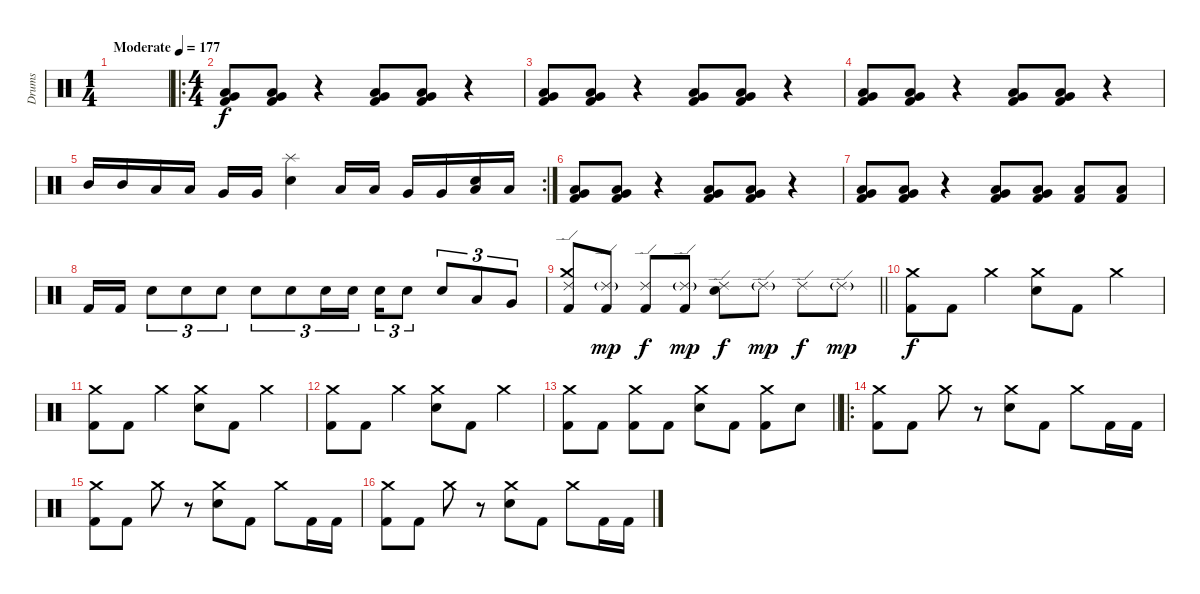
\track ("Drums" "Drums") {instrument percussion}
\staff {score}
\articulation defaults
\ts (1 4)
\tempo (177 "Moderate")
\clef neutral
\ks c
|
\ro
\ts (4 4)
("Very Low Tom (hit)" "Kick (hit) 2" "Low Floor Tom (hit)").8 ("Very Low Tom (hit)" "Kick (hit) 2" "Low Floor Tom (hit)").8 r.4 ("Very Low Tom (hit)" "Kick (hit) 2" "Low Floor Tom (hit)").8 ("Very Low Tom (hit)" "Kick (hit) 2" "Low Floor Tom (hit)").8 r.4 |
("Very Low Tom (hit)" "Kick (hit) 2" "Low Floor Tom (hit)").8 ("Very Low Tom (hit)" "Kick (hit) 2" "Low Floor Tom (hit)").8 r.4 ("Very Low Tom (hit)" "Kick (hit) 2" "Low Floor Tom (hit)").8 ("Very Low Tom (hit)" "Kick (hit) 2" "Low Floor Tom (hit)").8 r.4 |
("Very Low Tom (hit)" "Kick (hit) 2" "Low Floor Tom (hit)").8 ("Very Low Tom (hit)" "Kick (hit) 2" "Low Floor Tom (hit)").8 r.4 ("Very Low Tom (hit)" "Kick (hit) 2" "Low Floor Tom (hit)").8 ("Very Low Tom (hit)" "Kick (hit) 2" "Low Floor Tom (hit)").8 r.4 |
\rc 2 "Mid Tom (hit)".16 "Mid Tom (hit)".16 "Low Tom (hit)".16 "Low Tom (hit)".16 "Very Low Tom (hit)".16 "Very Low Tom (hit)".16
("Splash (hit)" "Snare (hit) 2").4 "Low Tom (hit)".16 "Low Tom (hit)".16 "Very Low Tom (hit)".16 "Very Low Tom (hit)".16 ("Low Floor Tom (hit)" "Snare (hit) 2").16 "Low Floor Tom (hit)".16 |
("Very Low Tom (hit)" "Kick (hit) 2" "Low Floor Tom (hit)").8 ("Very Low Tom (hit)" "Kick (hit) 2" "Low Floor Tom (hit)").8 r.4 ("Very Low Tom (hit)" "Kick (hit) 2" "Low Floor Tom (hit)").8 ("Very Low Tom (hit)" "Kick (hit) 2" "Low Floor Tom (hit)").8 r.4 |
("Very Low Tom (hit)" "Kick (hit) 2" "Low Floor Tom (hit)").8 ("Very Low Tom (hit)" "Kick (hit) 2" "Low Floor Tom (hit)").8 r.4 ("Very Low Tom (hit)" "Kick (hit) 2" "Low Floor Tom (hit)").8 ("Very Low Tom (hit)" "Kick (hit) 2" "Low Floor Tom (hit)").8 ("Low Tom (hit)" "Kick (hit) 2").8 ("Low Tom (hit)" "Kick (hit) 2").8 |
"Kick (hit) 2".16 "Kick (hit) 2".16 "Snare (hit) 2".8{tu (3 2)} "Snare (hit) 2".8{tu (3 2)} "Snare (hit) 2".8{tu (3 2)} "Snare (hit) 2".8{tu (3 2)} "Snare (hit) 2".8{tu (3 2)} "Snare (hit) 2".16{tu (3 2)} "Snare (hit) 2".16{tu (3 2) beam splitsecondary} "Snare (hit) 2".16{tu (3 2)} "Snare (hit) 2".8{tu (3 2)} "Snare (hit) 2".8{tu (3 2)} "Low Tom (hit)".8{tu (3 2)} "Very Low Tom (hit)".8{tu (3 2)} |
\barLineRight lightlight
("Crash medium (hit)" "Ride (edge) 2" "Kick (hit) 2").8 ("Ride (edge) 2"{g} "Kick (hit) 2").8{dy mp} ("Ride (edge) 2" "Kick (hit) 2").8{dy f} ("Ride (edge) 2"{g} "Kick (hit) 2").8{dy mp} ("Ride (edge) 2" "Snare (hit) 2").8{dy f} "Ride (edge) 2"{g}.8{dy mp} "Ride (edge) 2".8{dy f} "Ride (edge) 2"{g}.8{dy mp} |
("Crash medium (hit)" "Kick (hit) 2").8{dy f} "Kick (hit) 2".8 "Crash medium (hit)".4 ("Crash medium (hit)" "Snare (hit) 2").8 "Kick (hit) 2".8 "Crash medium (hit)".4 |
("Crash medium (hit)" "Kick (hit) 2").8 "Kick (hit) 2".8 "Crash medium (hit)".4 ("Crash medium (hit)" "Snare (hit) 2").8 "Kick (hit) 2".8 "Crash medium (hit)".4 |
("Crash medium (hit)" "Kick (hit) 2").8 "Kick (hit) 2".8 "Crash medium (hit)".4 ("Crash medium (hit)" "Snare (hit) 2").8 "Kick (hit) 2".8 "Crash medium (hit)".4 |
\barLineRight lightlight
("Crash medium (hit)" "Kick (hit) 2").8 "Kick (hit) 2".8 ("Crash medium (hit)" "Kick (hit) 2").8 "Kick (hit) 2".8 ("Crash medium (hit)" "Snare (hit) 2").8 "Kick (hit) 2".8 ("Crash medium (hit)" "Kick (hit) 2").8 "Snare (hit) 2".8 |
\ro
("Crash medium (hit)" "Kick (hit) 2").8 "Kick (hit) 2".8 "Crash medium (hit)".8 r.8 ("Crash medium (hit)" "Snare (hit) 2").8 "Kick (hit) 2".8 "Crash medium (hit)".8 "Kick (hit) 2".16 "Kick (hit) 2".16 |
("Crash medium (hit)" "Kick (hit) 2").8 "Kick (hit) 2".8 "Crash medium (hit)".8 r.8 ("Crash medium (hit)" "Snare (hit) 2").8 "Kick (hit) 2".8 "Crash medium (hit)".8 "Kick (hit) 2".16 "Kick (hit) 2".16 |
("Crash medium (hit)" "Kick (hit) 2").8 "Kick (hit) 2".8 "Crash medium (hit)".8 r.8 ("Crash medium (hit)" "Snare (hit) 2").8 "Kick (hit) 2".8 "Crash medium (hit)".8 "Kick (hit) 2".16 "Kick (hit) 2".16
